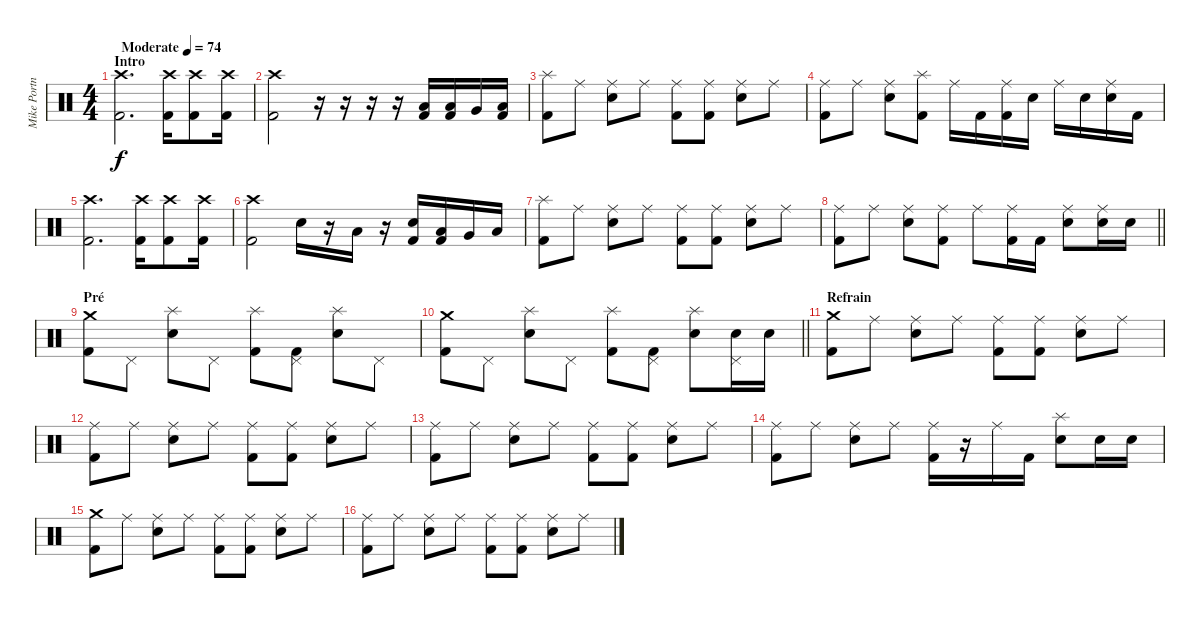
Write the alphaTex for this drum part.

\track ("Mike Portnoy" "Mike Portn") {instrument percussion}
\staff {score}
\articulation defaults
\ts (4 4)
\section ("" "Intro")
\tempo (74 "Moderate")
\clef neutral
\ks c
("Crash high (hit)" "Kick (hit) 2").2{d dy f} ("Crash high (hit)" "Kick (hit) 2").16 ("Crash high (hit)" "Kick (hit) 2").8 ("Crash high (hit)" "Kick (hit) 2").16 |
("Crash high (hit)" "Kick (hit) 2").2 r.16 r.16 r.16 r.16 ("Low Tom (hit)" "Kick (hit) 2").16 ("Low Tom (hit)" "Kick (hit) 2").16 "Very Low Tom (hit)".16 ("Low Floor Tom (hit)" "Kick (hit) 2").16 |
("Splash (hit)" "Kick (hit) 2").8 "Ride (middle)".8 ("Ride (middle)" "Electric Snare (hit)").8 "Ride (middle)".8 ("Ride (middle)" "Kick (hit) 2").8 ("Ride (middle)" "Kick (hit) 2").8 ("Ride (middle)" "Electric Snare (hit)").8 "Ride (middle)".8 |
("Ride (middle)" "Kick (hit) 2").8 "Ride (middle)".8 ("Ride (middle)" "Electric Snare (hit)").8 ("Splash (hit)" "Kick (hit) 2").8 "Ride (middle)".16 "Kick (hit) 2".16 ("Ride (middle)" "Kick (hit) 2").16 "Electric Snare (hit)".16 "Ride (middle)".16 "Electric Snare (hit)".16 ("Ride (middle)" "Electric Snare (hit)").16 "Kick (hit) 2".16 |
("Crash high (hit)" "Kick (hit) 2").2{d} ("Crash high (hit)" "Kick (hit) 2").16 ("Crash high (hit)" "Kick (hit) 2").8 ("Crash high (hit)" "Kick (hit) 2").16 |
("Crash high (hit)" "Kick (hit) 2").2 "Electric Snare (hit)".16 r.16 "Low Tom (hit)".16 r.16 ("Electric Snare (hit)" "Kick (hit) 2").16 ("Low Tom (hit)" "Kick (hit) 2").16 "Very Low Tom (hit)".16 "Low Floor Tom (hit)".16 |
("Splash (hit)" "Kick (hit) 2").8 "Ride (middle)".8 ("Ride (middle)" "Electric Snare (hit)").8 "Ride (middle)".8 ("Ride (middle)" "Kick (hit) 2").8 ("Ride (middle)" "Kick (hit) 2").8 ("Ride (middle)" "Electric Snare (hit)").8 "Ride (middle)".8 |
\barLineRight lightlight
("Ride (middle)" "Kick (hit) 2").8 "Ride (middle)".8 ("Ride (middle)" "Electric Snare (hit)").8 ("Ride (middle)" "Kick (hit) 2").8 "Ride (middle)".8 ("Ride (middle)" "Kick (hit) 2").16 "Kick (hit) 2".16 ("Ride (middle)" "Electric Snare (hit)").8 ("Ride (middle)" "Electric Snare (hit)").16 "Electric Snare (hit)".16 |
\section ("" "Pré")
("Crash medium (hit)" "Kick (hit) 2").8 "Pedal Hi-Hat (hit)".8 ("Splash (hit)" "Electric Snare (hit)").8 "Pedal Hi-Hat (hit)".8 ("Splash (hit)" "Kick (hit) 2").8 ("Pedal Hi-Hat (hit)" "Kick (hit) 2").8 ("Splash (hit)" "Electric Snare (hit)").8 "Pedal Hi-Hat (hit)".8 |
\barLineRight lightlight
("Crash medium (hit)" "Kick (hit) 2").8 "Pedal Hi-Hat (hit)".8 ("Splash (hit)" "Electric Snare (hit)").8 "Pedal Hi-Hat (hit)".8 ("Splash (hit)" "Kick (hit) 2").8 ("Pedal Hi-Hat (hit)" "Kick (hit) 2").8 ("Splash (hit)" "Electric Snare (hit)").8 ("Pedal Hi-Hat (hit)" "Electric Snare (hit)").16 "Electric Snare (hit)".16 |
\section ("" "Refrain")
("Crash medium (hit)" "Kick (hit) 2").8 "Ride (middle)".8 ("Ride (middle)" "Electric Snare (hit)").8 "Ride (middle)".8 ("Ride (middle)" "Kick (hit) 2").8 ("Ride (middle)" "Kick (hit) 2").8 ("Ride (middle)" "Electric Snare (hit)").8 "Ride (middle)".8 |
("Ride (middle)" "Kick (hit) 2").8 "Ride (middle)".8 ("Ride (middle)" "Electric Snare (hit)").8 "Ride (middle)".8 ("Ride (middle)" "Kick (hit) 2").8 ("Ride (middle)" "Kick (hit) 2").8 ("Ride (middle)" "Electric Snare (hit)").8 "Ride (middle)".8 |
("Ride (middle)" "Kick (hit) 2").8 "Ride (middle)".8 ("Ride (middle)" "Electric Snare (hit)").8 "Ride (middle)".8 ("Ride (middle)" "Kick (hit) 2").8 ("Ride (middle)" "Kick (hit) 2").8 ("Ride (middle)" "Electric Snare (hit)").8 "Ride (middle)".8 |
("Ride (middle)" "Kick (hit) 2").8 "Ride (middle)".8 ("Ride (middle)" "Electric Snare (hit)").8 "Ride (middle)".8 ("Ride (middle)" "Kick (hit) 2").16 r.16 "Ride (middle)".16 "Kick (hit) 2".16 ("Splash (hit)" "Electric Snare (hit)").8 "Electric Snare (hit)".16 "Electric Snare (hit)".16 |
("Crash medium (hit)" "Kick (hit) 2").8 "Ride (middle)".8 ("Ride (middle)" "Electric Snare (hit)").8 "Ride (middle)".8 ("Ride (middle)" "Kick (hit) 2").8 ("Ride (middle)" "Kick (hit) 2").8 ("Ride (middle)" "Electric Snare (hit)").8 "Ride (middle)".8 |
("Ride (middle)" "Kick (hit) 2").8 "Ride (middle)".8 ("Ride (middle)" "Electric Snare (hit)").8 "Ride (middle)".8 ("Ride (middle)" "Kick (hit) 2").8 ("Ride (middle)" "Kick (hit) 2").8 ("Ride (middle)" "Electric Snare (hit)").8 "Ride (middle)".8
